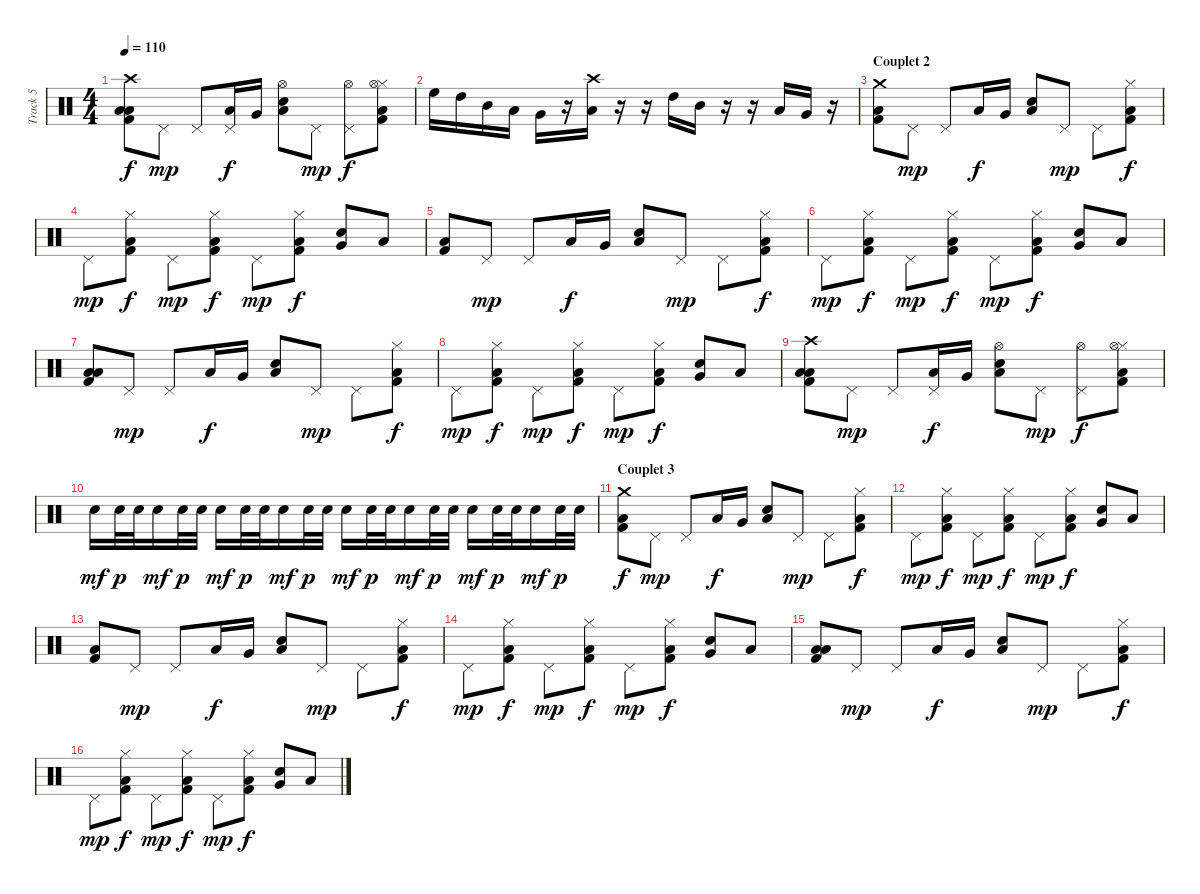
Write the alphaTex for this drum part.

\track ("Track 5" "Track 5") {instrument percussion}
\staff {score}
\articulation defaults
\ts (4 4)
\tempo 110
\clef neutral
\ks c
("Low Floor Tom (hit)" "Kick (hit) 2" "Low Tom (hit)" "Crash high (hit)").8{dy f} "Pedal Hi-Hat (hit)".8{dy mp} "Pedal Hi-Hat (hit)".8 ("Low Tom (hit)" "Pedal Hi-Hat (hit)").16{dy f} "Very Low Tom (hit)".16 ("Low Tom (hit)" "Snare (hit) 2" "Hi-Hat (open)").8 "Pedal Hi-Hat (hit)".8{dy mp} ("Pedal Hi-Hat (hit)" "Hi-Hat (open)").8{dy f} ("Hi-Hat (closed)" "Kick (hit) 2" "Low Tom (hit)" "Hi-Hat (open)").8 |
"High Floor Tom (hit)".16 "High Tom (hit)".16 "Mid Tom (hit)".16 "Low Tom (hit)".16 "Very Low Tom (hit)".16 r.16 ("Low Floor Tom (hit)" "Crash high (hit)").16 r.16 r.16 "High Tom (hit)".16 "Mid Tom (hit)".16 r.16 r.16 "Low Tom (hit)".16 "Very Low Tom (hit)".16 r.16 |
\section ("" "Couplet 2")
("Low Floor Tom (hit)" "Kick (hit) 2" "Crash medium (hit)").8 "Pedal Hi-Hat (hit)".8{dy mp} "Pedal Hi-Hat (hit)".8 "Low Tom (hit)".16{dy f} "Very Low Tom (hit)".16 ("Low Tom (hit)" "Snare (hit) 2").8 "Pedal Hi-Hat (hit)".8{dy mp} "Pedal Hi-Hat (hit)".8 ("Hi-Hat (closed)" "Kick (hit) 2" "Low Tom (hit)").8{dy f} |
"Pedal Hi-Hat (hit)".8{dy mp} ("Hi-Hat (closed)" "Kick (hit) 2" "Low Tom (hit)").8{dy f} "Pedal Hi-Hat (hit)".8{dy mp} ("Hi-Hat (closed)" "Kick (hit) 2" "Low Tom (hit)").8{dy f} "Pedal Hi-Hat (hit)".8{dy mp} ("Hi-Hat (closed)" "Kick (hit) 2" "Low Tom (hit)").8{dy f} ("Very Low Tom (hit)" "Electric Snare (hit)").8 "Low Floor Tom (hit)".8 |
("Low Floor Tom (hit)" "Kick (hit) 2").8 "Pedal Hi-Hat (hit)".8{dy mp} "Pedal Hi-Hat (hit)".8 "Low Tom (hit)".16{dy f} "Very Low Tom (hit)".16 ("Low Tom (hit)" "Snare (hit) 2").8 "Pedal Hi-Hat (hit)".8{dy mp} "Pedal Hi-Hat (hit)".8 ("Hi-Hat (closed)" "Kick (hit) 2" "Low Tom (hit)").8{dy f} |
"Pedal Hi-Hat (hit)".8{dy mp} ("Hi-Hat (closed)" "Kick (hit) 2" "Low Tom (hit)").8{dy f} "Pedal Hi-Hat (hit)".8{dy mp} ("Hi-Hat (closed)" "Kick (hit) 2" "Low Tom (hit)").8{dy f} "Pedal Hi-Hat (hit)".8{dy mp} ("Hi-Hat (closed)" "Kick (hit) 2" "Low Tom (hit)").8{dy f} ("Very Low Tom (hit)" "Electric Snare (hit)").8 "Low Floor Tom (hit)".8 |
("Low Floor Tom (hit)" "Kick (hit) 2" "Low Tom (hit)").8 "Pedal Hi-Hat (hit)".8{dy mp} "Pedal Hi-Hat (hit)".8 "Low Tom (hit)".16{dy f} "Very Low Tom (hit)".16 ("Low Tom (hit)" "Snare (hit) 2").8 "Pedal Hi-Hat (hit)".8{dy mp} "Pedal Hi-Hat (hit)".8 ("Hi-Hat (closed)" "Kick (hit) 2" "Low Tom (hit)").8{dy f} |
"Pedal Hi-Hat (hit)".8{dy mp} ("Hi-Hat (closed)" "Kick (hit) 2" "Low Tom (hit)").8{dy f} "Pedal Hi-Hat (hit)".8{dy mp} ("Hi-Hat (closed)" "Kick (hit) 2" "Low Tom (hit)").8{dy f} "Pedal Hi-Hat (hit)".8{dy mp} ("Hi-Hat (closed)" "Kick (hit) 2" "Low Tom (hit)").8{dy f} ("Very Low Tom (hit)" "Electric Snare (hit)").8 "Low Floor Tom (hit)".8 |
("Low Floor Tom (hit)" "Kick (hit) 2" "Low Tom (hit)" "Crash high (hit)").8 "Pedal Hi-Hat (hit)".8{dy mp} "Pedal Hi-Hat (hit)".8 ("Low Tom (hit)" "Pedal Hi-Hat (hit)").16{dy f} "Very Low Tom (hit)".16 ("Low Tom (hit)" "Snare (hit) 2" "Hi-Hat (open)").8 "Pedal Hi-Hat (hit)".8{dy mp} ("Pedal Hi-Hat (hit)" "Hi-Hat (open)").8{dy f} ("Hi-Hat (closed)" "Kick (hit) 2" "Low Tom (hit)" "Hi-Hat (open)").8 |
"Electric Snare (hit)".16{dy mf} "Electric Snare (hit)".32{dy p} "Electric Snare (hit)".32 "Electric Snare (hit)".16{dy mf} "Electric Snare (hit)".32{dy p} "Electric Snare (hit)".32 "Electric Snare (hit)".16{dy mf} "Electric Snare (hit)".32{dy p} "Electric Snare (hit)".32 "Electric Snare (hit)".16{dy mf} "Electric Snare (hit)".32{dy p} "Electric Snare (hit)".32 "Electric Snare (hit)".16{dy mf} "Electric Snare (hit)".32{dy p} "Electric Snare (hit)".32 "Electric Snare (hit)".16{dy mf} "Electric Snare (hit)".32{dy p} "Electric Snare (hit)".32 "Electric Snare (hit)".16{dy mf} "Electric Snare (hit)".32{dy p} "Electric Snare (hit)".32 "Electric Snare (hit)".16{dy mf} "Electric Snare (hit)".32{dy p} "Electric Snare (hit)".32 |
\section ("" "Couplet 3")
("Low Floor Tom (hit)" "Kick (hit) 2" "Crash medium (hit)").8{dy f} "Pedal Hi-Hat (hit)".8{dy mp} "Pedal Hi-Hat (hit)".8 "Low Tom (hit)".16{dy f} "Very Low Tom (hit)".16 ("Low Tom (hit)" "Snare (hit) 2").8 "Pedal Hi-Hat (hit)".8{dy mp} "Pedal Hi-Hat (hit)".8 ("Hi-Hat (closed)" "Kick (hit) 2" "Low Tom (hit)").8{dy f} |
"Pedal Hi-Hat (hit)".8{dy mp} ("Hi-Hat (closed)" "Kick (hit) 2" "Low Tom (hit)").8{dy f} "Pedal Hi-Hat (hit)".8{dy mp} ("Hi-Hat (closed)" "Kick (hit) 2" "Low Tom (hit)").8{dy f} "Pedal Hi-Hat (hit)".8{dy mp} ("Hi-Hat (closed)" "Kick (hit) 2" "Low Tom (hit)").8{dy f} ("Very Low Tom (hit)" "Electric Snare (hit)").8 "Low Floor Tom (hit)".8 |
("Low Floor Tom (hit)" "Kick (hit) 2").8 "Pedal Hi-Hat (hit)".8{dy mp} "Pedal Hi-Hat (hit)".8 "Low Tom (hit)".16{dy f} "Very Low Tom (hit)".16 ("Low Tom (hit)" "Snare (hit) 2").8 "Pedal Hi-Hat (hit)".8{dy mp} "Pedal Hi-Hat (hit)".8 ("Hi-Hat (closed)" "Kick (hit) 2" "Low Tom (hit)").8{dy f} |
"Pedal Hi-Hat (hit)".8{dy mp} ("Hi-Hat (closed)" "Kick (hit) 2" "Low Tom (hit)").8{dy f} "Pedal Hi-Hat (hit)".8{dy mp} ("Hi-Hat (closed)" "Kick (hit) 2" "Low Tom (hit)").8{dy f} "Pedal Hi-Hat (hit)".8{dy mp} ("Hi-Hat (closed)" "Kick (hit) 2" "Low Tom (hit)").8{dy f} ("Very Low Tom (hit)" "Electric Snare (hit)").8 "Low Floor Tom (hit)".8 |
("Low Floor Tom (hit)" "Kick (hit) 2" "Low Tom (hit)").8 "Pedal Hi-Hat (hit)".8{dy mp} "Pedal Hi-Hat (hit)".8 "Low Tom (hit)".16{dy f} "Very Low Tom (hit)".16 ("Low Tom (hit)" "Snare (hit) 2").8 "Pedal Hi-Hat (hit)".8{dy mp} "Pedal Hi-Hat (hit)".8 ("Hi-Hat (closed)" "Kick (hit) 2" "Low Tom (hit)").8{dy f} |
"Pedal Hi-Hat (hit)".8{dy mp} ("Hi-Hat (closed)" "Kick (hit) 2" "Low Tom (hit)").8{dy f} "Pedal Hi-Hat (hit)".8{dy mp} ("Hi-Hat (closed)" "Kick (hit) 2" "Low Tom (hit)").8{dy f} "Pedal Hi-Hat (hit)".8{dy mp} ("Hi-Hat (closed)" "Kick (hit) 2" "Low Tom (hit)").8{dy f} ("Very Low Tom (hit)" "Electric Snare (hit)").8 "Low Floor Tom (hit)".8
